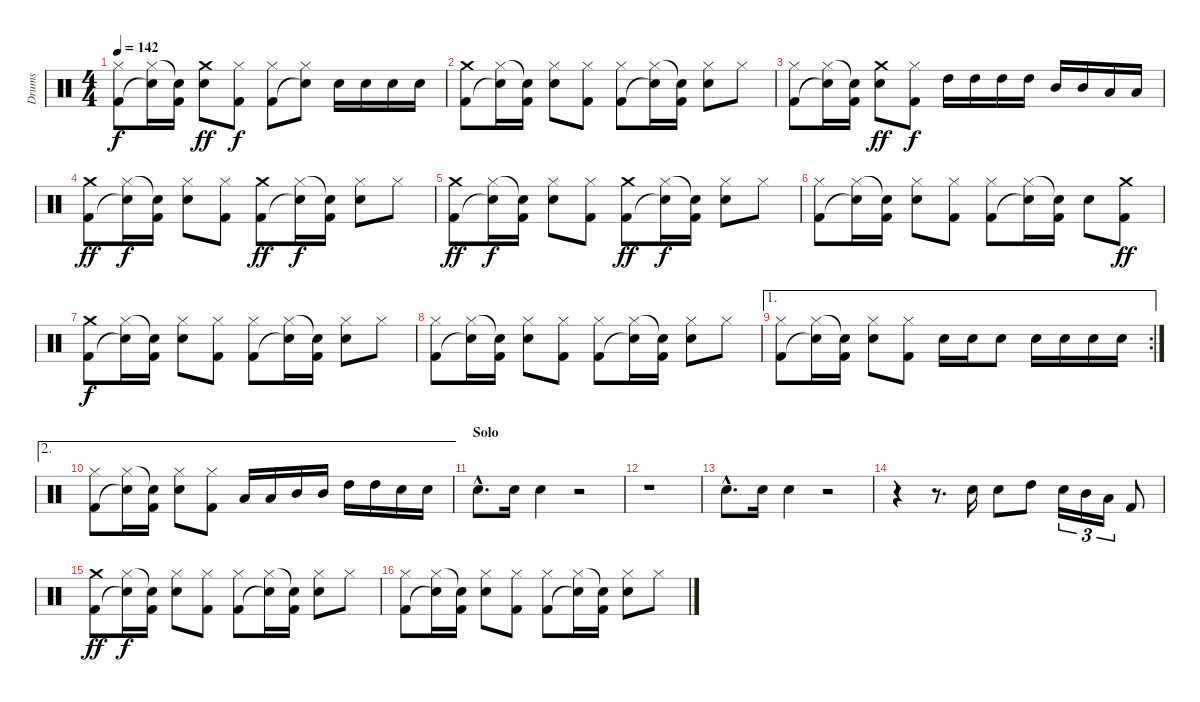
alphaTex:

\track ("Drums" "Drums") {instrument percussion}
\staff {score}
\articulation defaults
\ts (4 4)
\tempo 142
\clef neutral
\ks c
("Hi-Hat (closed)" "Kick (hit) 2").8{dy f} ("Hi-Hat (closed)" "Snare (hit)"{t}).16 ("Snare (hit)"{t} "Kick (hit) 2").16 ("Crash medium (hit)" "Snare (hit) 2").8{dy ff} ("Hi-Hat (closed)" "Kick (hit) 2").8{dy f} ("Hi-Hat (closed)" "Kick (hit) 2").8 ("Hi-Hat (closed)" "Snare (hit)"{t}).8 "Snare (hit) 2".16 "Snare (hit) 2".16 "Snare (hit) 2".16 "Snare (hit) 2".16 |
("Crash medium (hit)" "Kick (hit) 2").8 ("Hi-Hat (closed)" "Snare (hit)"{t}).16 ("Snare (hit)"{t} "Kick (hit) 2").16 ("Hi-Hat (closed)" "Snare (hit) 2").8 ("Hi-Hat (closed)" "Kick (hit) 2").8 ("Hi-Hat (closed)" "Kick (hit) 2").8 ("Hi-Hat (closed)" "Snare (hit)"{t}).16 ("Snare (hit)"{t} "Kick (hit) 2").16 ("Hi-Hat (closed)" "Snare (hit) 2").8 "Hi-Hat (closed)".8 |
("Hi-Hat (closed)" "Kick (hit) 2").8 ("Hi-Hat (closed)" "Snare (hit)"{t}).16 ("Snare (hit)"{t} "Kick (hit) 2").16 ("Crash medium (hit)" "Snare (hit) 2").8{dy ff} ("Hi-Hat (closed)" "Kick (hit) 2").8{dy f} "High Tom (hit)".16 "High Tom (hit)".16 "High Tom (hit)".16 "High Tom (hit)".16 "Mid Tom (hit)".16 "Mid Tom (hit)".16 "Low Tom (hit)".16 "Low Tom (hit)".16 |
("Crash medium (hit)" "Kick (hit) 2").8{dy ff} ("Hi-Hat (closed)" "Snare (hit)"{t}).16{dy f} ("Snare (hit)"{t} "Kick (hit) 2").16 ("Hi-Hat (closed)" "Snare (hit) 2").8 ("Hi-Hat (closed)" "Kick (hit) 2").8 ("Crash medium (hit)" "Kick (hit) 2").8{dy ff} ("Hi-Hat (closed)" "Snare (hit)"{t}).16{dy f} ("Snare (hit)"{t} "Kick (hit) 2").16 ("Hi-Hat (closed)" "Snare (hit) 2").8 "Hi-Hat (closed)".8 |
("Crash medium (hit)" "Kick (hit) 2").8{dy ff} ("Hi-Hat (closed)" "Snare (hit)"{t}).16{dy f} ("Snare (hit)"{t} "Kick (hit) 2").16 ("Hi-Hat (closed)" "Snare (hit) 2").8 ("Hi-Hat (closed)" "Kick (hit) 2").8 ("Crash medium (hit)" "Kick (hit) 2").8{dy ff} ("Hi-Hat (closed)" "Snare (hit)"{t}).16{dy f} ("Snare (hit)"{t} "Kick (hit) 2").16 ("Hi-Hat (closed)" "Snare (hit) 2").8 "Hi-Hat (closed)".8 |
("Hi-Hat (closed)" "Kick (hit) 2").8 ("Hi-Hat (closed)" "Snare (hit)"{t}).16 ("Snare (hit)"{t} "Kick (hit) 2").16 ("Hi-Hat (closed)" "Snare (hit) 2").8 ("Hi-Hat (closed)" "Kick (hit) 2").8 ("Hi-Hat (closed)" "Kick (hit) 2").8 ("Hi-Hat (closed)" "Snare (hit)"{t}).16 ("Snare (hit)"{t} "Kick (hit) 2").16 "Snare (hit) 2".8 ("Crash medium (hit)" "Kick (hit) 2").8{dy ff} |
("Crash medium (hit)" "Kick (hit) 2").8{dy f} ("Hi-Hat (closed)" "Snare (hit)"{t}).16 ("Snare (hit)"{t} "Kick (hit) 2").16 ("Hi-Hat (closed)" "Snare (hit) 2").8 ("Hi-Hat (closed)" "Kick (hit) 2").8 ("Hi-Hat (closed)" "Kick (hit) 2").8 ("Hi-Hat (closed)" "Snare (hit)"{t}).16 ("Snare (hit)"{t} "Kick (hit) 2").16 ("Hi-Hat (closed)" "Snare (hit) 2").8 "Hi-Hat (closed)".8 |
("Hi-Hat (closed)" "Kick (hit) 2").8 ("Hi-Hat (closed)" "Snare (hit)"{t}).16 ("Snare (hit)"{t} "Kick (hit) 2").16 ("Hi-Hat (closed)" "Snare (hit) 2").8 ("Hi-Hat (closed)" "Kick (hit) 2").8 ("Hi-Hat (closed)" "Kick (hit) 2").8 ("Hi-Hat (closed)" "Snare (hit)"{t}).16 ("Snare (hit)"{t} "Kick (hit) 2").16 ("Hi-Hat (closed)" "Snare (hit) 2").8 "Hi-Hat (closed)".8 |
\ae 1
\rc 2
("Hi-Hat (closed)" "Kick (hit) 2").8 ("Hi-Hat (closed)" "Snare (hit)"{t}).16 ("Snare (hit)"{t} "Kick (hit) 2").16 ("Hi-Hat (closed)" "Snare (hit) 2").8 ("Hi-Hat (closed)" "Kick (hit) 2").8 "Snare (hit) 2".16 "Snare (hit) 2".16 "Snare (hit) 2".8 "Snare (hit) 2".16 "Snare (hit) 2".16 "Snare (hit) 2".16 "Snare (hit) 2".16 |
\ae 2
("Hi-Hat (closed)" "Kick (hit) 2").8 ("Hi-Hat (closed)" "Snare (hit)"{t}).16 ("Snare (hit)"{t} "Kick (hit) 2").16 ("Hi-Hat (closed)" "Snare (hit) 2").8 ("Hi-Hat (closed)" "Kick (hit) 2").8 "Low Tom (hit)".16 "Low Tom (hit)".16 "Mid Tom (hit)".16 "Mid Tom (hit)".16 "High Tom (hit)".16 "High Tom (hit)".16 "Snare (hit) 2".16 "Snare (hit) 2".16 |
\section ("" "Solo")
"Snare (hit) 2"{hac}.8{d} "Snare (hit) 2".16 "Snare (hit) 2".4 r.2 |
r.1 |
"Snare (hit) 2"{hac}.8{d} "Snare (hit) 2".16 "Snare (hit) 2".4 r.2 |
r.4 r.8{d} "Snare (hit) 2".16 "Snare (hit) 2".8 "High Tom (hit)".8 "Snare (hit) 2".16{tu (3 2)} "Mid Tom (hit)".16{tu (3 2)} "Low Tom (hit)".16{tu (3 2)} "Kick (hit) 2".8 |
("Crash medium (hit)" "Kick (hit) 2").8{dy ff} ("Hi-Hat (closed)" "Snare (hit)"{t}).16{dy f} ("Snare (hit)"{t} "Kick (hit) 2").16 ("Hi-Hat (closed)" "Snare (hit) 2").8 ("Hi-Hat (closed)" "Kick (hit) 2").8 ("Hi-Hat (closed)" "Kick (hit) 2").8 ("Hi-Hat (closed)" "Snare (hit)"{t}).16 ("Snare (hit)"{t} "Kick (hit) 2").16 ("Hi-Hat (closed)" "Snare (hit) 2").8 "Hi-Hat (closed)".8 |
("Hi-Hat (closed)" "Kick (hit) 2").8 ("Hi-Hat (closed)" "Snare (hit)"{t}).16 ("Snare (hit)"{t} "Kick (hit) 2").16 ("Hi-Hat (closed)" "Snare (hit) 2").8 ("Hi-Hat (closed)" "Kick (hit) 2").8 ("Hi-Hat (closed)" "Kick (hit) 2").8 ("Hi-Hat (closed)" "Snare (hit)"{t}).16 ("Snare (hit)"{t} "Kick (hit) 2").16 ("Hi-Hat (closed)" "Snare (hit) 2").8 "Hi-Hat (closed)".8
